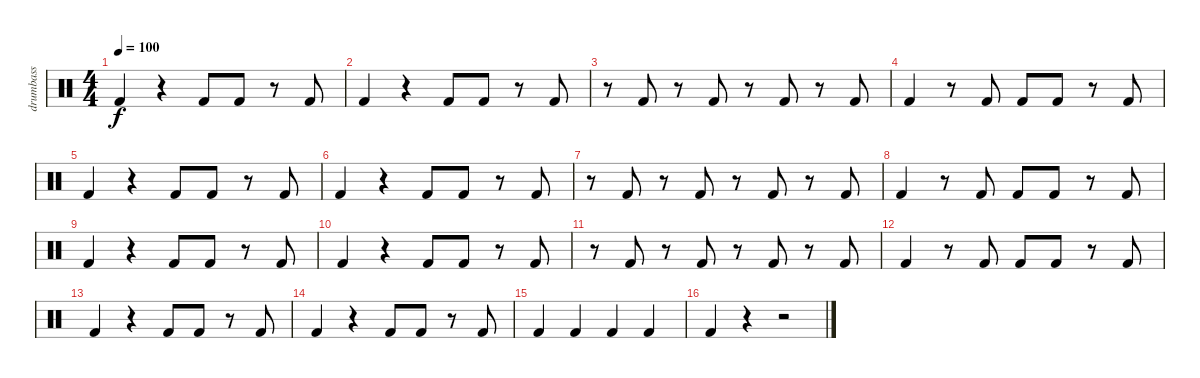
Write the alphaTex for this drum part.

\track ("drumbass" "drumbass") {instrument percussion}
\staff {score}
\articulation defaults
\ts (4 4)
\tempo 100
\clef neutral
\ks c "Kick (hit) 2".4{dy f}
r.4 "Kick (hit) 2".8 "Kick (hit) 2".8 r.8 "Kick (hit) 2".8 |
"Kick (hit) 2".4 r.4 "Kick (hit) 2".8 "Kick (hit) 2".8 r.8 "Kick (hit) 2".8 |
r.8 "Kick (hit) 2".8 r.8 "Kick (hit) 2".8 r.8 "Kick (hit) 2".8 r.8 "Kick (hit) 2".8 |
"Kick (hit) 2".4 r.8 "Kick (hit) 2".8 "Kick (hit) 2".8 "Kick (hit) 2".8 r.8 "Kick (hit) 2".8 |
"Kick (hit) 2".4 r.4 "Kick (hit) 2".8 "Kick (hit) 2".8 r.8 "Kick (hit) 2".8 |
"Kick (hit) 2".4 r.4 "Kick (hit) 2".8 "Kick (hit) 2".8 r.8 "Kick (hit) 2".8 |
r.8 "Kick (hit) 2".8 r.8 "Kick (hit) 2".8 r.8 "Kick (hit) 2".8 r.8 "Kick (hit) 2".8 |
"Kick (hit) 2".4 r.8 "Kick (hit) 2".8 "Kick (hit) 2".8 "Kick (hit) 2".8 r.8 "Kick (hit) 2".8 |
"Kick (hit) 2".4 r.4 "Kick (hit) 2".8 "Kick (hit) 2".8 r.8 "Kick (hit) 2".8 |
"Kick (hit) 2".4 r.4 "Kick (hit) 2".8 "Kick (hit) 2".8 r.8 "Kick (hit) 2".8 |
r.8 "Kick (hit) 2".8 r.8 "Kick (hit) 2".8 r.8 "Kick (hit) 2".8 r.8 "Kick (hit) 2".8 |
"Kick (hit) 2".4 r.8 "Kick (hit) 2".8 "Kick (hit) 2".8 "Kick (hit) 2".8 r.8 "Kick (hit) 2".8 |
"Kick (hit) 2".4 r.4 "Kick (hit) 2".8 "Kick (hit) 2".8 r.8 "Kick (hit) 2".8 |
"Kick (hit) 2".4 r.4 "Kick (hit) 2".8 "Kick (hit) 2".8 r.8 "Kick (hit) 2".8 |
"Kick (hit) 2".4 "Kick (hit) 2".4 "Kick (hit) 2".4 "Kick (hit) 2".4 |
"Kick (hit) 2".4 r.4 r.2
